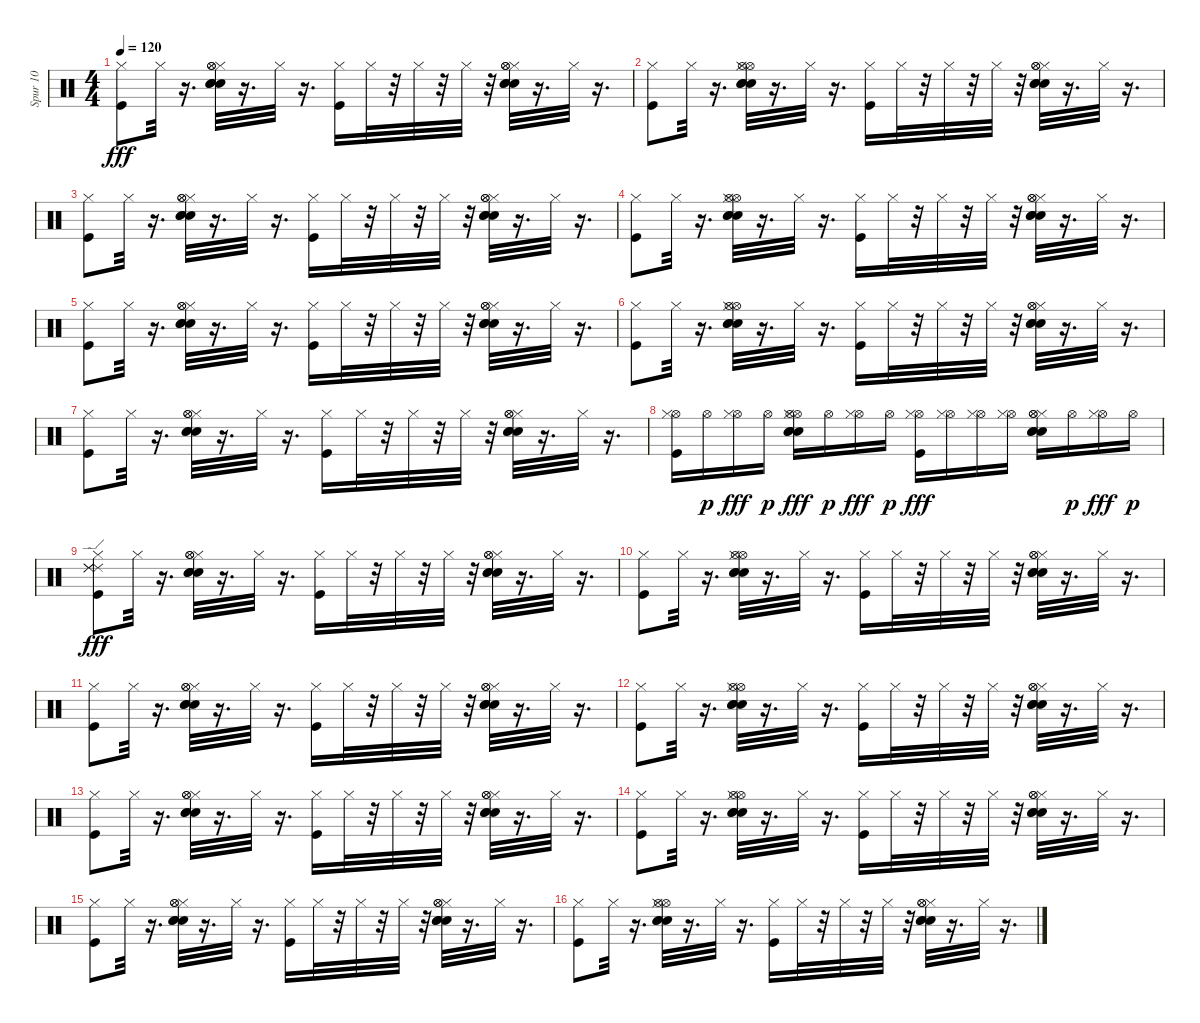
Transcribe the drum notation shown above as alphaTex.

\track ("Spur 10" "Spur 10") {instrument percussion}
\staff {score}
\articulation defaults
\ts (4 4)
\tempo 120
\clef neutral
\ks c
("Kick (hit)" "Hi-Hat (closed)").8{dy fff} "Hi-Hat (closed)".32 r.16{d} ("Snare (hit) 2" "Snare (hit) 2" "Hi-Hat (closed)" "Snare (hit) 2" "Hi-Hat (open)" "Hi-Hat (open)").32 r.16{d} "Hi-Hat (closed)".32 r.16{d} ("Hi-Hat (closed)" "Kick (hit)").16 "Hi-Hat (closed)".32 r.32 "Hi-Hat (closed)".32 r.32 "Hi-Hat (closed)".32 r.32 ("Hi-Hat (closed)" "Snare (hit) 2" "Hi-Hat (open)" "Hi-Hat (open)" "Snare (hit) 2" "Snare (hit) 2").32 r.16{d} "Hi-Hat (closed)".32 r.16{d} |
("Hi-Hat (closed)" "Kick (hit)").8 "Hi-Hat (closed)".32 r.16{d} ("Hi-Hat (open)" "Hi-Hat (closed)" "Snare (hit) 2" "Hi-Hat (open)" "Snare (hit) 2" "Snare (hit) 2").32 r.16{d} "Hi-Hat (closed)".32 r.16{d} ("Kick (hit)" "Hi-Hat (closed)").16 "Hi-Hat (closed)".32 r.32 "Hi-Hat (closed)".32 r.32 "Hi-Hat (closed)".32 r.32 ("Snare (hit) 2" "Hi-Hat (closed)" "Hi-Hat (open)" "Snare (hit) 2" "Hi-Hat (open)" "Snare (hit) 2").32 r.16{d} "Hi-Hat (closed)".32 r.16{d} |
("Kick (hit)" "Hi-Hat (closed)").8 "Hi-Hat (closed)".32 r.16{d} ("Snare (hit) 2" "Snare (hit) 2" "Hi-Hat (closed)" "Snare (hit) 2" "Hi-Hat (open)" "Hi-Hat (open)").32 r.16{d} "Hi-Hat (closed)".32 r.16{d} ("Hi-Hat (closed)" "Kick (hit)").16 "Hi-Hat (closed)".32 r.32 "Hi-Hat (closed)".32 r.32 "Hi-Hat (closed)".32 r.32 ("Hi-Hat (closed)" "Snare (hit) 2" "Hi-Hat (open)" "Hi-Hat (open)" "Snare (hit) 2" "Snare (hit) 2").32 r.16{d} "Hi-Hat (closed)".32 r.16{d} |
("Hi-Hat (closed)" "Kick (hit)").8 "Hi-Hat (closed)".32 r.16{d} ("Hi-Hat (open)" "Hi-Hat (closed)" "Snare (hit) 2" "Hi-Hat (open)" "Snare (hit) 2" "Snare (hit) 2").32 r.16{d} "Hi-Hat (closed)".32 r.16{d} ("Kick (hit)" "Hi-Hat (closed)").16 "Hi-Hat (closed)".32 r.32 "Hi-Hat (closed)".32 r.32 "Hi-Hat (closed)".32 r.32 ("Snare (hit) 2" "Hi-Hat (closed)" "Hi-Hat (open)" "Snare (hit) 2" "Hi-Hat (open)" "Snare (hit) 2").32 r.16{d} "Hi-Hat (closed)".32 r.16{d} |
("Kick (hit)" "Hi-Hat (closed)").8 "Hi-Hat (closed)".32 r.16{d} ("Snare (hit) 2" "Snare (hit) 2" "Hi-Hat (closed)" "Snare (hit) 2" "Hi-Hat (open)" "Hi-Hat (open)").32 r.16{d} "Hi-Hat (closed)".32 r.16{d} ("Hi-Hat (closed)" "Kick (hit)").16 "Hi-Hat (closed)".32 r.32 "Hi-Hat (closed)".32 r.32 "Hi-Hat (closed)".32 r.32 ("Hi-Hat (closed)" "Snare (hit) 2" "Hi-Hat (open)" "Hi-Hat (open)" "Snare (hit) 2" "Snare (hit) 2").32 r.16{d} "Hi-Hat (closed)".32 r.16{d} |
("Hi-Hat (closed)" "Kick (hit)").8 "Hi-Hat (closed)".32 r.16{d} ("Hi-Hat (open)" "Hi-Hat (closed)" "Snare (hit) 2" "Hi-Hat (open)" "Snare (hit) 2" "Snare (hit) 2").32 r.16{d} "Hi-Hat (closed)".32 r.16{d} ("Kick (hit)" "Hi-Hat (closed)").16 "Hi-Hat (closed)".32 r.32 "Hi-Hat (closed)".32 r.32 "Hi-Hat (closed)".32 r.32 ("Snare (hit) 2" "Hi-Hat (closed)" "Hi-Hat (open)" "Snare (hit) 2" "Hi-Hat (open)" "Snare (hit) 2").32 r.16{d} "Hi-Hat (closed)".32 r.16{d} |
("Kick (hit)" "Hi-Hat (closed)").8 "Hi-Hat (closed)".32 r.16{d} ("Snare (hit) 2" "Snare (hit) 2" "Hi-Hat (closed)" "Snare (hit) 2" "Hi-Hat (open)" "Hi-Hat (open)").32 r.16{d} "Hi-Hat (closed)".32 r.16{d} ("Hi-Hat (closed)" "Kick (hit)").16 "Hi-Hat (closed)".32 r.32 "Hi-Hat (closed)".32 r.32 "Hi-Hat (closed)".32 r.32 ("Hi-Hat (closed)" "Snare (hit) 2" "Hi-Hat (open)" "Hi-Hat (open)" "Snare (hit) 2" "Snare (hit) 2").32 r.16{d} "Hi-Hat (closed)".32 r.16{d} |
("Hi-Hat (open)" "Hi-Hat (closed)" "Kick (hit)").16 "Hi-Hat (open)".16{dy p} ("Hi-Hat (open)" "Hi-Hat (closed)").16{dy fff} "Hi-Hat (open)".16{dy p} ("Hi-Hat (open)" "Hi-Hat (closed)" "Snare (hit) 2" "Hi-Hat (open)" "Snare (hit) 2" "Snare (hit) 2").16{dy fff} "Hi-Hat (open)".16{dy p} ("Hi-Hat (open)" "Hi-Hat (closed)").16{dy fff} "Hi-Hat (open)".16{dy p} ("Hi-Hat (open)" "Kick (hit)" "Hi-Hat (closed)").16{dy fff} ("Hi-Hat (open)" "Hi-Hat (closed)").16 ("Hi-Hat (open)" "Hi-Hat (closed)").16 ("Hi-Hat (open)" "Hi-Hat (closed)").16 ("Snare (hit) 2" "Hi-Hat (closed)" "Hi-Hat (open)" "Snare (hit) 2" "Hi-Hat (open)" "Snare (hit) 2").16 "Hi-Hat (open)".16{dy p} ("Hi-Hat (open)" "Hi-Hat (closed)").16{dy fff} "Hi-Hat (open)".16{dy p} |
("Ride (edge) 2" "Ride (edge) 2" "Ride (edge) 2" "Kick (hit)" "Hi-Hat (closed)").8{dy fff} "Hi-Hat (closed)".32 r.16{d} ("Snare (hit) 2" "Snare (hit) 2" "Hi-Hat (closed)" "Snare (hit) 2" "Hi-Hat (open)" "Hi-Hat (open)").32 r.16{d} "Hi-Hat (closed)".32 r.16{d} ("Hi-Hat (closed)" "Kick (hit)").16 "Hi-Hat (closed)".32 r.32 "Hi-Hat (closed)".32 r.32 "Hi-Hat (closed)".32 r.32 ("Hi-Hat (closed)" "Snare (hit) 2" "Hi-Hat (open)" "Hi-Hat (open)" "Snare (hit) 2" "Snare (hit) 2").32 r.16{d} "Hi-Hat (closed)".32 r.16{d} |
("Hi-Hat (closed)" "Kick (hit)").8 "Hi-Hat (closed)".32 r.16{d} ("Hi-Hat (open)" "Hi-Hat (closed)" "Snare (hit) 2" "Hi-Hat (open)" "Snare (hit) 2" "Snare (hit) 2").32 r.16{d} "Hi-Hat (closed)".32 r.16{d} ("Kick (hit)" "Hi-Hat (closed)").16 "Hi-Hat (closed)".32 r.32 "Hi-Hat (closed)".32 r.32 "Hi-Hat (closed)".32 r.32 ("Snare (hit) 2" "Hi-Hat (closed)" "Hi-Hat (open)" "Snare (hit) 2" "Hi-Hat (open)" "Snare (hit) 2").32 r.16{d} "Hi-Hat (closed)".32 r.16{d} |
("Kick (hit)" "Hi-Hat (closed)").8 "Hi-Hat (closed)".32 r.16{d} ("Snare (hit) 2" "Snare (hit) 2" "Hi-Hat (closed)" "Snare (hit) 2" "Hi-Hat (open)" "Hi-Hat (open)").32 r.16{d} "Hi-Hat (closed)".32 r.16{d} ("Hi-Hat (closed)" "Kick (hit)").16 "Hi-Hat (closed)".32 r.32 "Hi-Hat (closed)".32 r.32 "Hi-Hat (closed)".32 r.32 ("Hi-Hat (closed)" "Snare (hit) 2" "Hi-Hat (open)" "Hi-Hat (open)" "Snare (hit) 2" "Snare (hit) 2").32 r.16{d} "Hi-Hat (closed)".32 r.16{d} |
("Hi-Hat (closed)" "Kick (hit)").8 "Hi-Hat (closed)".32 r.16{d} ("Hi-Hat (open)" "Hi-Hat (closed)" "Snare (hit) 2" "Hi-Hat (open)" "Snare (hit) 2" "Snare (hit) 2").32 r.16{d} "Hi-Hat (closed)".32 r.16{d} ("Kick (hit)" "Hi-Hat (closed)").16 "Hi-Hat (closed)".32 r.32 "Hi-Hat (closed)".32 r.32 "Hi-Hat (closed)".32 r.32 ("Snare (hit) 2" "Hi-Hat (closed)" "Hi-Hat (open)" "Snare (hit) 2" "Hi-Hat (open)" "Snare (hit) 2").32 r.16{d} "Hi-Hat (closed)".32 r.16{d} |
("Kick (hit)" "Hi-Hat (closed)").8 "Hi-Hat (closed)".32 r.16{d} ("Snare (hit) 2" "Snare (hit) 2" "Hi-Hat (closed)" "Snare (hit) 2" "Hi-Hat (open)" "Hi-Hat (open)").32 r.16{d} "Hi-Hat (closed)".32 r.16{d} ("Hi-Hat (closed)" "Kick (hit)").16 "Hi-Hat (closed)".32 r.32 "Hi-Hat (closed)".32 r.32 "Hi-Hat (closed)".32 r.32 ("Hi-Hat (closed)" "Snare (hit) 2" "Hi-Hat (open)" "Hi-Hat (open)" "Snare (hit) 2" "Snare (hit) 2").32 r.16{d} "Hi-Hat (closed)".32 r.16{d} |
("Hi-Hat (closed)" "Kick (hit)").8 "Hi-Hat (closed)".32 r.16{d} ("Hi-Hat (open)" "Hi-Hat (closed)" "Snare (hit) 2" "Hi-Hat (open)" "Snare (hit) 2" "Snare (hit) 2").32 r.16{d} "Hi-Hat (closed)".32 r.16{d} ("Kick (hit)" "Hi-Hat (closed)").16 "Hi-Hat (closed)".32 r.32 "Hi-Hat (closed)".32 r.32 "Hi-Hat (closed)".32 r.32 ("Snare (hit) 2" "Hi-Hat (closed)" "Hi-Hat (open)" "Snare (hit) 2" "Hi-Hat (open)" "Snare (hit) 2").32 r.16{d} "Hi-Hat (closed)".32 r.16{d} |
("Kick (hit)" "Hi-Hat (closed)").8 "Hi-Hat (closed)".32 r.16{d} ("Snare (hit) 2" "Snare (hit) 2" "Hi-Hat (closed)" "Snare (hit) 2" "Hi-Hat (open)" "Hi-Hat (open)").32 r.16{d} "Hi-Hat (closed)".32 r.16{d} ("Hi-Hat (closed)" "Kick (hit)").16 "Hi-Hat (closed)".32 r.32 "Hi-Hat (closed)".32 r.32 "Hi-Hat (closed)".32 r.32 ("Hi-Hat (closed)" "Snare (hit) 2" "Hi-Hat (open)" "Hi-Hat (open)" "Snare (hit) 2" "Snare (hit) 2").32 r.16{d} "Hi-Hat (closed)".32 r.16{d} |
("Hi-Hat (closed)" "Kick (hit)").8 "Hi-Hat (closed)".32 r.16{d} ("Hi-Hat (open)" "Hi-Hat (closed)" "Snare (hit) 2" "Hi-Hat (open)" "Snare (hit) 2" "Snare (hit) 2").32 r.16{d} "Hi-Hat (closed)".32 r.16{d} ("Kick (hit)" "Hi-Hat (closed)").16 "Hi-Hat (closed)".32 r.32 "Hi-Hat (closed)".32 r.32 "Hi-Hat (closed)".32 r.32 ("Snare (hit) 2" "Hi-Hat (closed)" "Hi-Hat (open)" "Snare (hit) 2" "Hi-Hat (open)" "Snare (hit) 2").32 r.16{d} "Hi-Hat (closed)".32 r.16{d}
